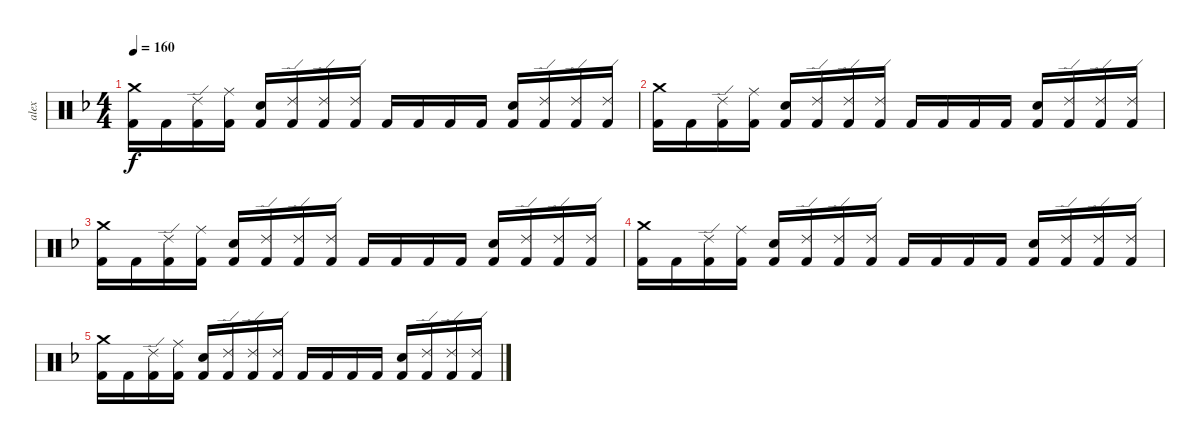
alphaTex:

\track ("alex" "alex") {instrument percussion}
\staff {score}
\articulation defaults
\ts (4 4)
\tempo 160
\clef neutral
\ks f
("Crash medium (hit)" "Kick (hit) 2").16{dy f} "Kick (hit) 2".16 ("Ride (edge) 2" "Kick (hit) 2").16 ("Ride (middle)" "Kick (hit) 2").16 ("Kick (hit) 2" "Electric Snare (hit)").16 ("Ride (edge) 2" "Kick (hit) 2").16 ("Ride (edge) 2" "Kick (hit) 2").16 ("Ride (edge) 2" "Kick (hit) 2").16 "Kick (hit) 2".16 "Kick (hit) 2".16 "Kick (hit) 2".16 "Kick (hit) 2".16 ("Kick (hit) 2" "Electric Snare (hit)").16 ("Ride (edge) 2" "Kick (hit) 2").16 ("Ride (edge) 2" "Kick (hit) 2").16 ("Ride (edge) 2" "Kick (hit) 2").16 |
("Crash medium (hit)" "Kick (hit) 2").16 "Kick (hit) 2".16 ("Ride (edge) 2" "Kick (hit) 2").16 ("Ride (middle)" "Kick (hit) 2").16 ("Kick (hit) 2" "Electric Snare (hit)").16 ("Ride (edge) 2" "Kick (hit) 2").16 ("Ride (edge) 2" "Kick (hit) 2").16 ("Ride (edge) 2" "Kick (hit) 2").16 "Kick (hit) 2".16 "Kick (hit) 2".16 "Kick (hit) 2".16 "Kick (hit) 2".16 ("Kick (hit) 2" "Electric Snare (hit)").16 ("Ride (edge) 2" "Kick (hit) 2").16 ("Ride (edge) 2" "Kick (hit) 2").16 ("Ride (edge) 2" "Kick (hit) 2").16 |
("Crash medium (hit)" "Kick (hit) 2").16 "Kick (hit) 2".16 ("Ride (edge) 2" "Kick (hit) 2").16 ("Ride (middle)" "Kick (hit) 2").16 ("Kick (hit) 2" "Electric Snare (hit)").16 ("Ride (edge) 2" "Kick (hit) 2").16 ("Ride (edge) 2" "Kick (hit) 2").16 ("Ride (edge) 2" "Kick (hit) 2").16 "Kick (hit) 2".16 "Kick (hit) 2".16 "Kick (hit) 2".16 "Kick (hit) 2".16 ("Kick (hit) 2" "Electric Snare (hit)").16 ("Ride (edge) 2" "Kick (hit) 2").16 ("Ride (edge) 2" "Kick (hit) 2").16 ("Ride (edge) 2" "Kick (hit) 2").16 |
("Crash medium (hit)" "Kick (hit) 2").16 "Kick (hit) 2".16 ("Ride (edge) 2" "Kick (hit) 2").16 ("Ride (middle)" "Kick (hit) 2").16 ("Kick (hit) 2" "Electric Snare (hit)").16 ("Ride (edge) 2" "Kick (hit) 2").16 ("Ride (edge) 2" "Kick (hit) 2").16 ("Ride (edge) 2" "Kick (hit) 2").16 "Kick (hit) 2".16 "Kick (hit) 2".16 "Kick (hit) 2".16 "Kick (hit) 2".16 ("Kick (hit) 2" "Electric Snare (hit)").16 ("Ride (edge) 2" "Kick (hit) 2").16 ("Ride (edge) 2" "Kick (hit) 2").16 ("Ride (edge) 2" "Kick (hit) 2").16 |
("Crash medium (hit)" "Kick (hit) 2").16 "Kick (hit) 2".16 ("Ride (edge) 2" "Kick (hit) 2").16 ("Ride (middle)" "Kick (hit) 2").16 ("Kick (hit) 2" "Electric Snare (hit)").16 ("Ride (edge) 2" "Kick (hit) 2").16 ("Ride (edge) 2" "Kick (hit) 2").16 ("Ride (edge) 2" "Kick (hit) 2").16 "Kick (hit) 2".16 "Kick (hit) 2".16 "Kick (hit) 2".16 "Kick (hit) 2".16 ("Kick (hit) 2" "Electric Snare (hit)").16 ("Ride (edge) 2" "Kick (hit) 2").16 ("Ride (edge) 2" "Kick (hit) 2").16 ("Ride (edge) 2" "Kick (hit) 2").16
